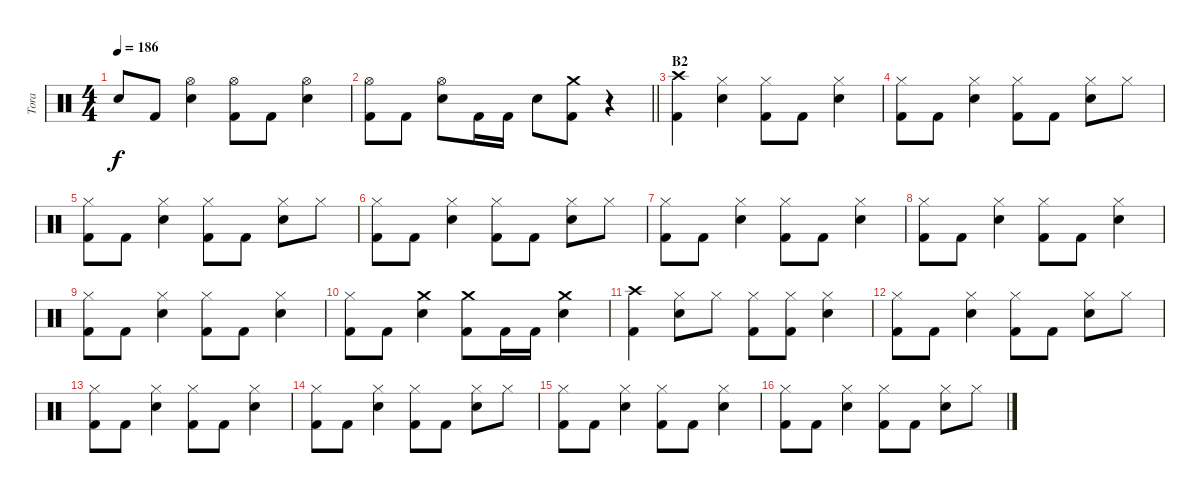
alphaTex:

\track ("Tora" "Tora") {instrument percussion}
\staff {score}
\articulation defaults
\ts (4 4)
\tempo 186
\clef neutral
\ks c "Snare (hit)"{t}.8{dy f} "Kick (hit) 2".8
("Hi-Hat (open)" "Electric Snare (hit)").4 ("Hi-Hat (open)" "Kick (hit) 2").8 "Kick (hit) 2".8 ("Hi-Hat (open)" "Electric Snare (hit)").4 |
\barLineRight lightlight
("Hi-Hat (open)" "Kick (hit) 2").8 "Kick (hit) 2".8 ("Hi-Hat (open)" "Electric Snare (hit)").8 "Kick (hit) 2".16 "Kick (hit) 2".16 "Electric Snare (hit)".8 ("Crash medium (hit)" "Kick (hit) 2").8 r.4 |
\section ("" "B2")
("Crash high (hit)" "Kick (hit) 2").4 ("Hi-Hat (closed)" "Electric Snare (hit)").4 ("Hi-Hat (closed)" "Kick (hit) 2").8 "Kick (hit) 2".8 ("Hi-Hat (closed)" "Electric Snare (hit)").4 |
("Hi-Hat (closed)" "Kick (hit) 2").8 "Kick (hit) 2".8 ("Hi-Hat (closed)" "Electric Snare (hit)").4 ("Hi-Hat (closed)" "Kick (hit) 2").8 "Kick (hit) 2".8 ("Hi-Hat (closed)" "Electric Snare (hit)").8 "Hi-Hat (closed)".8 |
("Hi-Hat (closed)" "Kick (hit) 2").8 "Kick (hit) 2".8 ("Hi-Hat (closed)" "Electric Snare (hit)").4 ("Hi-Hat (closed)" "Kick (hit) 2").8 "Kick (hit) 2".8 ("Hi-Hat (closed)" "Electric Snare (hit)").8 "Hi-Hat (closed)".8 |
("Hi-Hat (closed)" "Kick (hit) 2").8 "Kick (hit) 2".8 ("Hi-Hat (closed)" "Electric Snare (hit)").4 ("Hi-Hat (closed)" "Kick (hit) 2").8 "Kick (hit) 2".8 ("Hi-Hat (closed)" "Electric Snare (hit)").8 "Hi-Hat (closed)".8 |
("Hi-Hat (closed)" "Kick (hit) 2").8 "Kick (hit) 2".8 ("Hi-Hat (closed)" "Electric Snare (hit)").4 ("Hi-Hat (closed)" "Kick (hit) 2").8 "Kick (hit) 2".8 ("Hi-Hat (closed)" "Electric Snare (hit)").4 |
("Hi-Hat (closed)" "Kick (hit) 2").8 "Kick (hit) 2".8 ("Hi-Hat (closed)" "Electric Snare (hit)").4 ("Hi-Hat (closed)" "Kick (hit) 2").8 "Kick (hit) 2".8 ("Hi-Hat (closed)" "Electric Snare (hit)").4 |
("Hi-Hat (closed)" "Kick (hit) 2").8 "Kick (hit) 2".8 ("Hi-Hat (closed)" "Electric Snare (hit)").4 ("Hi-Hat (closed)" "Kick (hit) 2").8 "Kick (hit) 2".8 ("Hi-Hat (closed)" "Electric Snare (hit)").4 |
("Hi-Hat (closed)" "Kick (hit) 2").8 "Kick (hit) 2".8 ("Crash medium (hit)" "Electric Snare (hit)").4 ("Crash medium (hit)" "Kick (hit) 2").8 "Kick (hit) 2".16 "Kick (hit) 2".16 ("Crash medium (hit)" "Electric Snare (hit)").4 |
("Crash high (hit)" "Kick (hit) 2").4 ("Hi-Hat (closed)" "Electric Snare (hit)").8 "Hi-Hat (closed)".8 ("Hi-Hat (closed)" "Kick (hit) 2").8 ("Hi-Hat (closed)" "Kick (hit) 2").8 ("Hi-Hat (closed)" "Electric Snare (hit)").4 |
("Hi-Hat (closed)" "Kick (hit) 2").8 "Kick (hit) 2".8 ("Hi-Hat (closed)" "Electric Snare (hit)").4 ("Hi-Hat (closed)" "Kick (hit) 2").8 "Kick (hit) 2".8 ("Hi-Hat (closed)" "Electric Snare (hit)").8 "Hi-Hat (closed)".8 |
("Hi-Hat (closed)" "Kick (hit) 2").8 "Kick (hit) 2".8 ("Hi-Hat (closed)" "Electric Snare (hit)").4 ("Hi-Hat (closed)" "Kick (hit) 2").8 "Kick (hit) 2".8 ("Hi-Hat (closed)" "Electric Snare (hit)").4 |
("Hi-Hat (closed)" "Kick (hit) 2").8 "Kick (hit) 2".8 ("Hi-Hat (closed)" "Electric Snare (hit)").4 ("Hi-Hat (closed)" "Kick (hit) 2").8 "Kick (hit) 2".8 ("Hi-Hat (closed)" "Electric Snare (hit)").8 "Hi-Hat (closed)".8 |
("Hi-Hat (closed)" "Kick (hit) 2").8 "Kick (hit) 2".8 ("Hi-Hat (closed)" "Electric Snare (hit)").4 ("Hi-Hat (closed)" "Kick (hit) 2").8 "Kick (hit) 2".8 ("Hi-Hat (closed)" "Electric Snare (hit)").4 |
("Hi-Hat (closed)" "Kick (hit) 2").8 "Kick (hit) 2".8 ("Hi-Hat (closed)" "Electric Snare (hit)").4 ("Hi-Hat (closed)" "Kick (hit) 2").8 "Kick (hit) 2".8 ("Hi-Hat (closed)" "Electric Snare (hit)").8 "Hi-Hat (closed)".8
